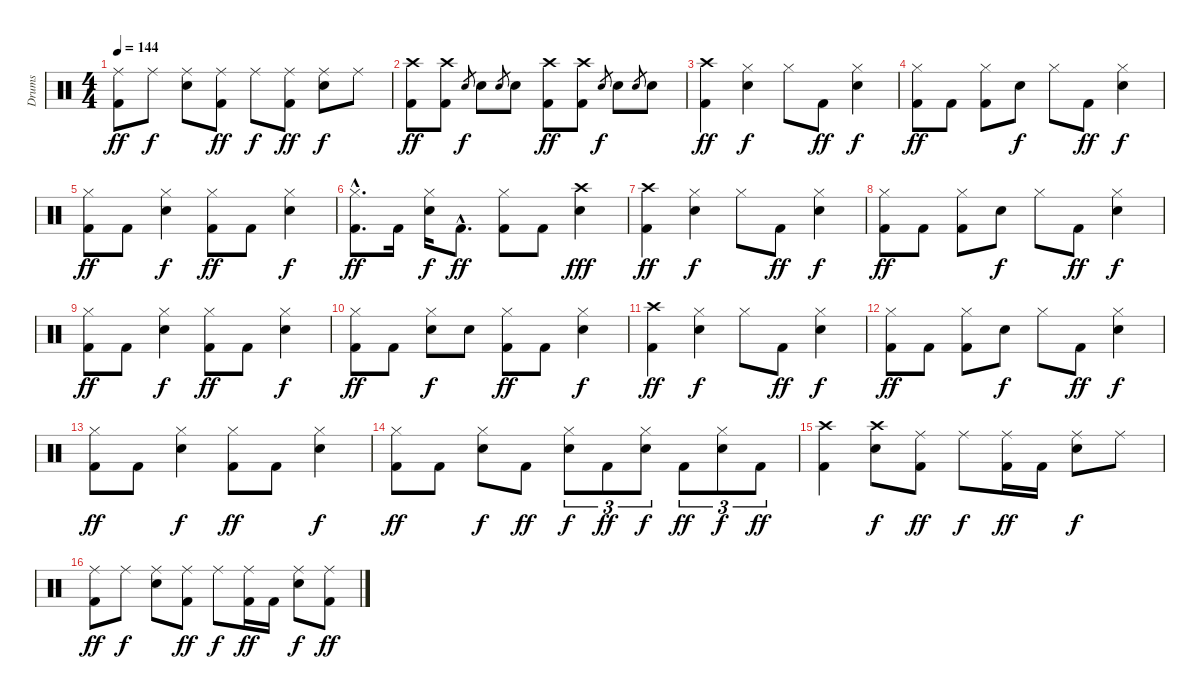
\track ("Drums" "Drums") {instrument percussion}
\staff {score}
\articulation defaults
\ts (4 4)
\tempo 144
\clef neutral
\ks c
("Ride (middle)" "Kick (hit) 2").8{dy ff} "Ride (middle)".8{dy f} ("Ride (middle)" "Snare (hit) 2").8 ("Ride (middle)" "Kick (hit) 2").8{dy ff} "Ride (middle)".8{dy f} ("Ride (middle)" "Kick (hit) 2").8{dy ff} ("Ride (middle)" "Snare (hit) 2").8{dy f} "Ride (middle)".8 |
("Crash high (hit)" "Kick (hit) 2").8{dy ff} ("Crash high (hit)" "Kick (hit) 2").8 "Snare (hit) 2".8{gr dy f} "Snare (hit) 2".8 "Snare (hit) 2".8{gr} "Snare (hit) 2".8 ("Crash high (hit)" "Kick (hit) 2").8{dy ff} ("Crash high (hit)" "Kick (hit) 2").8 "Snare (hit) 2".8{gr dy f} "Snare (hit) 2".8 "Snare (hit) 2".8{gr} "Snare (hit) 2".8 |
("Crash high (hit)" "Kick (hit) 2").4{dy ff} ("Hi-Hat (closed)" "Snare (hit) 2").4{dy f} "Hi-Hat (closed)".8 "Kick (hit) 2".8{dy ff} ("Hi-Hat (closed)" "Snare (hit) 2").4{dy f} |
("Hi-Hat (closed)" "Kick (hit) 2").8{dy ff} "Kick (hit) 2".8 ("Hi-Hat (closed)" "Kick (hit) 2").8 "Snare (hit) 2".8{dy f} "Hi-Hat (closed)".8 "Kick (hit) 2".8{dy ff} ("Hi-Hat (closed)" "Snare (hit) 2").4{dy f} |
("Hi-Hat (closed)" "Kick (hit) 2").8{dy ff} "Kick (hit) 2".8 ("Hi-Hat (closed)" "Snare (hit) 2").4{dy f} ("Hi-Hat (closed)" "Kick (hit) 2").8{dy ff} "Kick (hit) 2".8 ("Hi-Hat (closed)" "Snare (hit) 2").4{dy f} |
("Hi-Hat (closed)"{hac} "Kick (hit) 2"{hac}).8{d dy ff} "Kick (hit) 2".16 ("Hi-Hat (closed)" "Snare (hit) 2").16{dy f} "Kick (hit) 2"{hac}.8{d dy ff} ("Hi-Hat (closed)" "Kick (hit) 2").8 "Kick (hit) 2".8 ("Crash high (hit)" "Snare (hit) 2").4{dy fff} |
("Crash high (hit)" "Kick (hit) 2").4{dy ff} ("Hi-Hat (closed)" "Snare (hit) 2").4{dy f} "Hi-Hat (closed)".8 "Kick (hit) 2".8{dy ff} ("Hi-Hat (closed)" "Snare (hit) 2").4{dy f} |
("Hi-Hat (closed)" "Kick (hit) 2").8{dy ff} "Kick (hit) 2".8 ("Hi-Hat (closed)" "Kick (hit) 2").8 "Snare (hit) 2".8{dy f} "Hi-Hat (closed)".8 "Kick (hit) 2".8{dy ff} ("Hi-Hat (closed)" "Snare (hit) 2").4{dy f} |
("Hi-Hat (closed)" "Kick (hit) 2").8{dy ff} "Kick (hit) 2".8 ("Hi-Hat (closed)" "Snare (hit) 2").4{dy f} ("Hi-Hat (closed)" "Kick (hit) 2").8{dy ff} "Kick (hit) 2".8 ("Hi-Hat (closed)" "Snare (hit) 2").4{dy f} |
("Hi-Hat (closed)" "Kick (hit) 2").8{dy ff} "Kick (hit) 2".8 ("Hi-Hat (closed)" "Snare (hit) 2").8{dy f} "Snare (hit) 2".8 ("Hi-Hat (closed)" "Kick (hit) 2").8{dy ff} "Kick (hit) 2".8 ("Hi-Hat (closed)" "Snare (hit) 2").4{dy f} |
("Crash high (hit)" "Kick (hit) 2").4{dy ff} ("Hi-Hat (closed)" "Snare (hit) 2").4{dy f} "Hi-Hat (closed)".8 "Kick (hit) 2".8{dy ff} ("Hi-Hat (closed)" "Snare (hit) 2").4{dy f} |
("Hi-Hat (closed)" "Kick (hit) 2").8{dy ff} "Kick (hit) 2".8 ("Hi-Hat (closed)" "Kick (hit) 2").8 "Snare (hit) 2".8{dy f} "Hi-Hat (closed)".8 "Kick (hit) 2".8{dy ff} ("Hi-Hat (closed)" "Snare (hit) 2").4{dy f} |
("Hi-Hat (closed)" "Kick (hit) 2").8{dy ff} "Kick (hit) 2".8 ("Hi-Hat (closed)" "Snare (hit) 2").4{dy f} ("Hi-Hat (closed)" "Kick (hit) 2").8{dy ff} "Kick (hit) 2".8 ("Hi-Hat (closed)" "Snare (hit) 2").4{dy f} |
("Hi-Hat (closed)" "Kick (hit) 2").8{dy ff} "Kick (hit) 2".8 ("Hi-Hat (closed)" "Snare (hit) 2").8{dy f} "Kick (hit) 2".8{dy ff} ("Hi-Hat (closed)" "Snare (hit) 2").8{tu (3 2) dy f} "Kick (hit) 2".8{tu (3 2) dy ff} ("Hi-Hat (closed)" "Snare (hit) 2").8{tu (3 2) dy f} "Kick (hit) 2".8{tu (3 2) dy ff} ("Hi-Hat (closed)" "Snare (hit) 2").8{tu (3 2) dy f} "Kick (hit) 2".8{tu (3 2) dy ff} |
("Crash high (hit)" "Kick (hit) 2").4 ("Crash high (hit)" "Snare (hit) 2").8{dy f} ("Ride (middle)" "Kick (hit) 2").8{dy ff} "Ride (middle)".8{dy f} ("Ride (middle)" "Kick (hit) 2").16{dy ff} "Kick (hit) 2".16 ("Ride (middle)" "Snare (hit) 2").8{dy f} "Ride (middle)".8 |
("Ride (middle)" "Kick (hit) 2").8{dy ff} "Ride (middle)".8{dy f} ("Ride (middle)" "Snare (hit) 2").8 ("Ride (middle)" "Kick (hit) 2").8{dy ff} "Ride (middle)".8{dy f} ("Ride (middle)" "Kick (hit) 2").16{dy ff} "Kick (hit) 2".16 ("Ride (middle)" "Snare (hit) 2").8{dy f} ("Ride (middle)" "Kick (hit) 2").8{dy ff}
